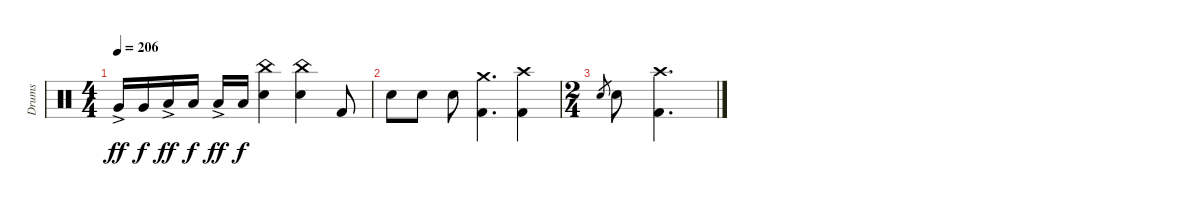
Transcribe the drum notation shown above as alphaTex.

\track ("Drums" "Drums") {instrument percussion}
\staff {score}
\articulation defaults
\ts (4 4)
\tempo 206
\clef neutral
\ks c "Very Low Tom (hit)"{ac}.16{dy ff} "Very Low Tom (hit)".16{dy f} "Low Floor Tom (hit)"{ac}.16{dy ff} "Low Floor Tom (hit)".16{dy f} "Low Floor Tom (hit)"{ac}.16{dy ff} "Low Floor Tom (hit)".16{dy f}
("China (hit)" "Electric Snare (hit)").4 ("China (hit)" "Electric Snare (hit)").4 "Kick (hit) 2".8 |
"Electric Snare (hit)".8 "Electric Snare (hit)".8 "Electric Snare (hit)".8 ("Crash medium (hit)" "Kick (hit) 2").4{d} ("Crash high (hit)" "Kick (hit) 2").4 |
\ts (2 4)
"Electric Snare (hit)".8{gr} "Electric Snare (hit)".8 ("Crash high (hit)" "Kick (hit) 2").4{d}
